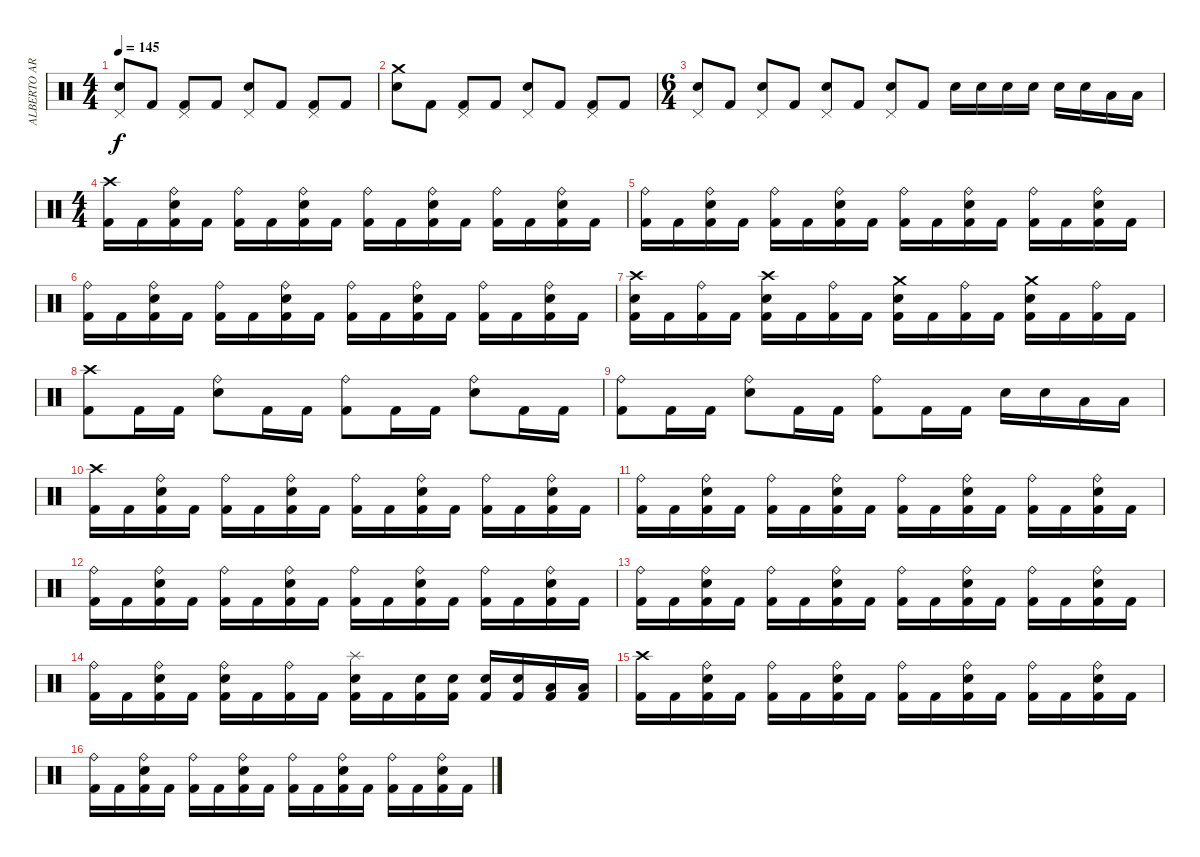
\track ("ALBERTO ARDINES" "ALBERTO AR") {instrument percussion}
\staff {score}
\articulation defaults
\ts (4 4)
\tempo 145
\clef neutral
\ks c
("Pedal Hi-Hat (hit)" "Electric Snare (hit)").8{dy f} "Kick (hit) 2".8 ("Pedal Hi-Hat (hit)" "Kick (hit) 2").8 "Kick (hit) 2".8 ("Pedal Hi-Hat (hit)" "Electric Snare (hit)").8 "Kick (hit) 2".8 ("Pedal Hi-Hat (hit)" "Kick (hit) 2").8 "Kick (hit) 2".8 |
("Crash medium (hit)" "Electric Snare (hit)").8 "Kick (hit) 2".8 ("Pedal Hi-Hat (hit)" "Kick (hit) 2").8 "Kick (hit) 2".8 ("Pedal Hi-Hat (hit)" "Electric Snare (hit)").8 "Kick (hit) 2".8 ("Pedal Hi-Hat (hit)" "Kick (hit) 2").8 "Kick (hit) 2".8 |
\ts (6 4)
("Pedal Hi-Hat (hit)" "Electric Snare (hit)").8 "Kick (hit) 2".8 ("Pedal Hi-Hat (hit)" "Electric Snare (hit)").8 "Kick (hit) 2".8 ("Pedal Hi-Hat (hit)" "Electric Snare (hit)").8 "Kick (hit) 2".8 ("Pedal Hi-Hat (hit)" "Electric Snare (hit)").8 "Kick (hit) 2".8 "Electric Snare (hit)".16 "Electric Snare (hit)".16 "Electric Snare (hit)".16 "Electric Snare (hit)".16 "Electric Snare (hit)".16 "Electric Snare (hit)".16 "Low Tom (hit)".16 "Low Tom (hit)".16 |
\ts (4 4)
("Crash high (hit)" "Kick (hit) 2").16 "Kick (hit) 2".16 ("Ride (bell)" "Electric Snare (hit)" "Kick (hit) 2").16 "Kick (hit) 2".16 ("Ride (bell)" "Kick (hit) 2").16 "Kick (hit) 2".16 ("Ride (bell)" "Electric Snare (hit)" "Kick (hit) 2").16 "Kick (hit) 2".16 ("Ride (bell)" "Kick (hit) 2").16 "Kick (hit) 2".16 ("Ride (bell)" "Electric Snare (hit)" "Kick (hit) 2").16 "Kick (hit) 2".16 ("Ride (bell)" "Kick (hit) 2").16 "Kick (hit) 2".16 ("Ride (bell)" "Electric Snare (hit)" "Kick (hit) 2").16 "Kick (hit) 2".16 |
("Ride (bell)" "Kick (hit) 2").16 "Kick (hit) 2".16 ("Ride (bell)" "Electric Snare (hit)" "Kick (hit) 2").16 "Kick (hit) 2".16 ("Ride (bell)" "Kick (hit) 2").16 "Kick (hit) 2".16 ("Ride (bell)" "Electric Snare (hit)" "Kick (hit) 2").16 "Kick (hit) 2".16 ("Ride (bell)" "Kick (hit) 2").16 "Kick (hit) 2".16 ("Ride (bell)" "Electric Snare (hit)" "Kick (hit) 2").16 "Kick (hit) 2".16 ("Ride (bell)" "Kick (hit) 2").16 "Kick (hit) 2".16 ("Ride (bell)" "Electric Snare (hit)" "Kick (hit) 2").16 "Kick (hit) 2".16 |
("Ride (bell)" "Kick (hit) 2").16 "Kick (hit) 2".16 ("Ride (bell)" "Electric Snare (hit)" "Kick (hit) 2").16 "Kick (hit) 2".16 ("Ride (bell)" "Kick (hit) 2").16 "Kick (hit) 2".16 ("Ride (bell)" "Electric Snare (hit)" "Kick (hit) 2").16 "Kick (hit) 2".16 ("Ride (bell)" "Kick (hit) 2").16 "Kick (hit) 2".16 ("Ride (bell)" "Electric Snare (hit)" "Kick (hit) 2").16 "Kick (hit) 2".16 ("Ride (bell)" "Kick (hit) 2").16 "Kick (hit) 2".16 ("Ride (bell)" "Electric Snare (hit)" "Kick (hit) 2").16 "Kick (hit) 2".16 |
("Crash high (hit)" "Electric Snare (hit)" "Kick (hit) 2").16 "Kick (hit) 2".16 ("Ride (bell)" "Kick (hit) 2").16 "Kick (hit) 2".16 ("Crash high (hit)" "Electric Snare (hit)" "Kick (hit) 2").16 "Kick (hit) 2".16 ("Ride (bell)" "Kick (hit) 2").16 "Kick (hit) 2".16 ("Crash medium (hit)" "Electric Snare (hit)" "Kick (hit) 2").16 "Kick (hit) 2".16 ("Ride (bell)" "Kick (hit) 2").16 "Kick (hit) 2".16 ("Crash medium (hit)" "Electric Snare (hit)" "Kick (hit) 2").16 "Kick (hit) 2".16 ("Ride (bell)" "Kick (hit) 2").16 "Kick (hit) 2".16 |
("Crash high (hit)" "Kick (hit) 2").8 "Kick (hit) 2".16 "Kick (hit) 2".16 ("Ride (bell)" "Electric Snare (hit)").8 "Kick (hit) 2".16 "Kick (hit) 2".16 ("Ride (bell)" "Kick (hit) 2").8 "Kick (hit) 2".16 "Kick (hit) 2".16 ("Ride (bell)" "Electric Snare (hit)").8 "Kick (hit) 2".16 "Kick (hit) 2".16 |
("Ride (bell)" "Kick (hit) 2").8 "Kick (hit) 2".16 "Kick (hit) 2".16 ("Ride (bell)" "Electric Snare (hit)").8 "Kick (hit) 2".16 "Kick (hit) 2".16 ("Ride (bell)" "Kick (hit) 2").8 "Kick (hit) 2".16 "Kick (hit) 2".16 "Electric Snare (hit)".16 "Electric Snare (hit)".16 "Low Tom (hit)".16 "Low Tom (hit)".16 |
("Crash high (hit)" "Kick (hit) 2").16 "Kick (hit) 2".16 ("Ride (bell)" "Electric Snare (hit)" "Kick (hit) 2").16 "Kick (hit) 2".16 ("Ride (bell)" "Kick (hit) 2").16 "Kick (hit) 2".16 ("Ride (bell)" "Electric Snare (hit)" "Kick (hit) 2").16 "Kick (hit) 2".16 ("Ride (bell)" "Kick (hit) 2").16 "Kick (hit) 2".16 ("Ride (bell)" "Electric Snare (hit)" "Kick (hit) 2").16 "Kick (hit) 2".16 ("Ride (bell)" "Kick (hit) 2").16 "Kick (hit) 2".16 ("Ride (bell)" "Electric Snare (hit)" "Kick (hit) 2").16 "Kick (hit) 2".16 |
("Ride (bell)" "Kick (hit) 2").16 "Kick (hit) 2".16 ("Ride (bell)" "Electric Snare (hit)" "Kick (hit) 2").16 "Kick (hit) 2".16 ("Ride (bell)" "Kick (hit) 2").16 "Kick (hit) 2".16 ("Ride (bell)" "Electric Snare (hit)" "Kick (hit) 2").16 "Kick (hit) 2".16 ("Ride (bell)" "Kick (hit) 2").16 "Kick (hit) 2".16 ("Ride (bell)" "Electric Snare (hit)" "Kick (hit) 2").16 "Kick (hit) 2".16 ("Ride (bell)" "Kick (hit) 2").16 "Kick (hit) 2".16 ("Ride (bell)" "Electric Snare (hit)" "Kick (hit) 2").16 "Kick (hit) 2".16 |
("Ride (bell)" "Kick (hit) 2").16 "Kick (hit) 2".16 ("Ride (bell)" "Electric Snare (hit)" "Kick (hit) 2").16 "Kick (hit) 2".16 ("Ride (bell)" "Kick (hit) 2").16 "Kick (hit) 2".16 ("Ride (bell)" "Electric Snare (hit)" "Kick (hit) 2").16 "Kick (hit) 2".16 ("Ride (bell)" "Kick (hit) 2").16 "Kick (hit) 2".16 ("Ride (bell)" "Electric Snare (hit)" "Kick (hit) 2").16 "Kick (hit) 2".16 ("Ride (bell)" "Kick (hit) 2").16 "Kick (hit) 2".16 ("Ride (bell)" "Electric Snare (hit)" "Kick (hit) 2").16 "Kick (hit) 2".16 |
("Ride (bell)" "Kick (hit) 2").16 "Kick (hit) 2".16 ("Ride (bell)" "Electric Snare (hit)" "Kick (hit) 2").16 "Kick (hit) 2".16 ("Ride (bell)" "Kick (hit) 2").16 "Kick (hit) 2".16 ("Ride (bell)" "Electric Snare (hit)" "Kick (hit) 2").16 "Kick (hit) 2".16 ("Ride (bell)" "Kick (hit) 2").16 "Kick (hit) 2".16 ("Ride (bell)" "Electric Snare (hit)" "Kick (hit) 2").16 "Kick (hit) 2".16 ("Ride (bell)" "Kick (hit) 2").16 "Kick (hit) 2".16 ("Ride (bell)" "Electric Snare (hit)" "Kick (hit) 2").16 "Kick (hit) 2".16 |
("Ride (bell)" "Kick (hit) 2").16 "Kick (hit) 2".16 ("Ride (bell)" "Electric Snare (hit)" "Kick (hit) 2").16 "Kick (hit) 2".16 ("Ride (bell)" "Electric Snare (hit)" "Kick (hit) 2").16 "Kick (hit) 2".16 ("Ride (bell)" "Kick (hit) 2").16 "Kick (hit) 2".16 ("Splash (hit)" "Electric Snare (hit)" "Kick (hit) 2").16 "Kick (hit) 2".16 ("Electric Snare (hit)" "Kick (hit) 2").16 ("Electric Snare (hit)" "Kick (hit) 2").16 ("Electric Snare (hit)" "Kick (hit) 2").16 ("Electric Snare (hit)" "Kick (hit) 2").16 ("Low Tom (hit)" "Kick (hit) 2").16 ("Low Tom (hit)" "Kick (hit) 2").16 |
("Crash high (hit)" "Kick (hit) 2").16 "Kick (hit) 2".16 ("Ride (bell)" "Electric Snare (hit)" "Kick (hit) 2").16 "Kick (hit) 2".16 ("Ride (bell)" "Kick (hit) 2").16 "Kick (hit) 2".16 ("Ride (bell)" "Electric Snare (hit)" "Kick (hit) 2").16 "Kick (hit) 2".16 ("Ride (bell)" "Kick (hit) 2").16 "Kick (hit) 2".16 ("Ride (bell)" "Electric Snare (hit)" "Kick (hit) 2").16 "Kick (hit) 2".16 ("Ride (bell)" "Kick (hit) 2").16 "Kick (hit) 2".16 ("Ride (bell)" "Electric Snare (hit)" "Kick (hit) 2").16 "Kick (hit) 2".16 |
("Ride (bell)" "Kick (hit) 2").16 "Kick (hit) 2".16 ("Ride (bell)" "Electric Snare (hit)" "Kick (hit) 2").16 "Kick (hit) 2".16 ("Ride (bell)" "Kick (hit) 2").16 "Kick (hit) 2".16 ("Ride (bell)" "Electric Snare (hit)" "Kick (hit) 2").16 "Kick (hit) 2".16 ("Ride (bell)" "Kick (hit) 2").16 "Kick (hit) 2".16 ("Ride (bell)" "Electric Snare (hit)" "Kick (hit) 2").16 "Kick (hit) 2".16 ("Ride (bell)" "Kick (hit) 2").16 "Kick (hit) 2".16 ("Ride (bell)" "Electric Snare (hit)" "Kick (hit) 2").16 "Kick (hit) 2".16
